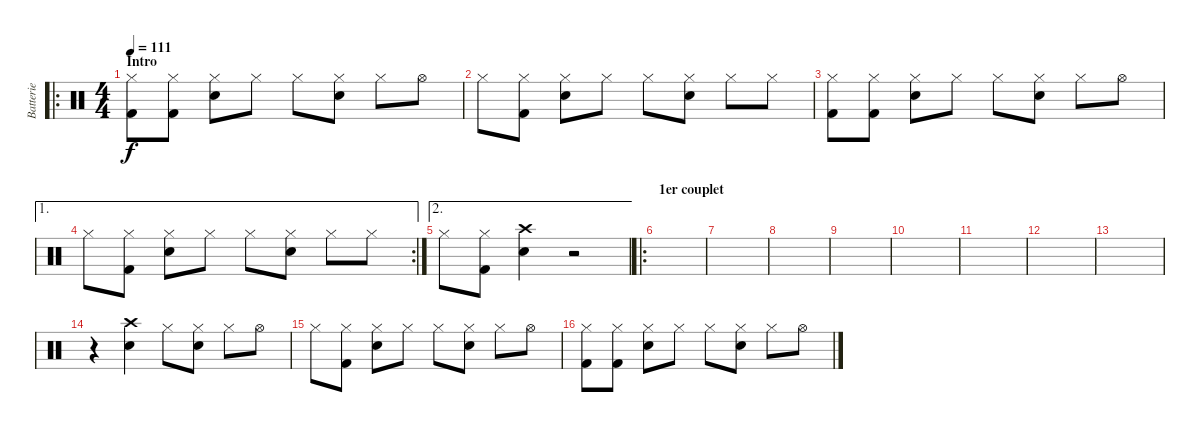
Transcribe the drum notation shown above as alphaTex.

\track ("Batterie" "Batterie") {instrument percussion}
\staff {score}
\articulation defaults
\ro
\ts (4 4)
\section ("" "Intro")
\tempo 111
\clef neutral
\ks c
("Hi-Hat (closed)" "Kick (hit) 2").8{dy f} ("Hi-Hat (closed)" "Kick (hit) 2").8 ("Hi-Hat (closed)" "Snare (hit) 2").8 "Hi-Hat (closed)".8 "Hi-Hat (closed)".8 ("Hi-Hat (closed)" "Snare (hit) 2").8 "Hi-Hat (closed)".8 "Hi-Hat (open)".8 |
"Hi-Hat (closed)".8 ("Hi-Hat (closed)" "Kick (hit) 2").8 ("Hi-Hat (closed)" "Snare (hit) 2").8 "Hi-Hat (closed)".8 "Hi-Hat (closed)".8 ("Hi-Hat (closed)" "Snare (hit) 2").8 "Hi-Hat (closed)".8 "Hi-Hat (closed)".8 |
("Hi-Hat (closed)" "Kick (hit) 2").8 ("Hi-Hat (closed)" "Kick (hit) 2").8 ("Hi-Hat (closed)" "Snare (hit) 2").8 "Hi-Hat (closed)".8 "Hi-Hat (closed)".8 ("Hi-Hat (closed)" "Snare (hit) 2").8 "Hi-Hat (closed)".8 "Hi-Hat (open)".8 |
\ae 1
\rc 2 "Hi-Hat (closed)".8
("Hi-Hat (closed)" "Kick (hit) 2").8 ("Hi-Hat (closed)" "Snare (hit) 2").8 "Hi-Hat (closed)".8 "Hi-Hat (closed)".8 ("Hi-Hat (closed)" "Snare (hit) 2").8 "Hi-Hat (closed)".8 "Hi-Hat (closed)".8 |
\ae 2 "Hi-Hat (closed)".8
("Hi-Hat (closed)" "Kick (hit) 2").8 ("Crash high (hit)" "Snare (hit) 2").4 r.2 |
\ro
\section ("" "1er couplet")
|
|
|
|
|
|
|
|
r.4 ("Crash high (hit)" "Snare (hit) 2").4 "Hi-Hat (closed)".8 ("Hi-Hat (closed)" "Snare (hit) 2").8 "Hi-Hat (closed)".8 "Hi-Hat (open)".8 |
"Hi-Hat (closed)".8 ("Hi-Hat (closed)" "Kick (hit) 2").8 ("Hi-Hat (closed)" "Snare (hit) 2").8 "Hi-Hat (closed)".8 "Hi-Hat (closed)".8 ("Hi-Hat (closed)" "Snare (hit) 2").8 "Hi-Hat (closed)".8 "Hi-Hat (open)".8 |
("Hi-Hat (closed)" "Kick (hit) 2").8 ("Hi-Hat (closed)" "Kick (hit) 2").8 ("Hi-Hat (closed)" "Snare (hit) 2").8 "Hi-Hat (closed)".8 "Hi-Hat (closed)".8 ("Hi-Hat (closed)" "Snare (hit) 2").8 "Hi-Hat (closed)".8 "Hi-Hat (open)".8
